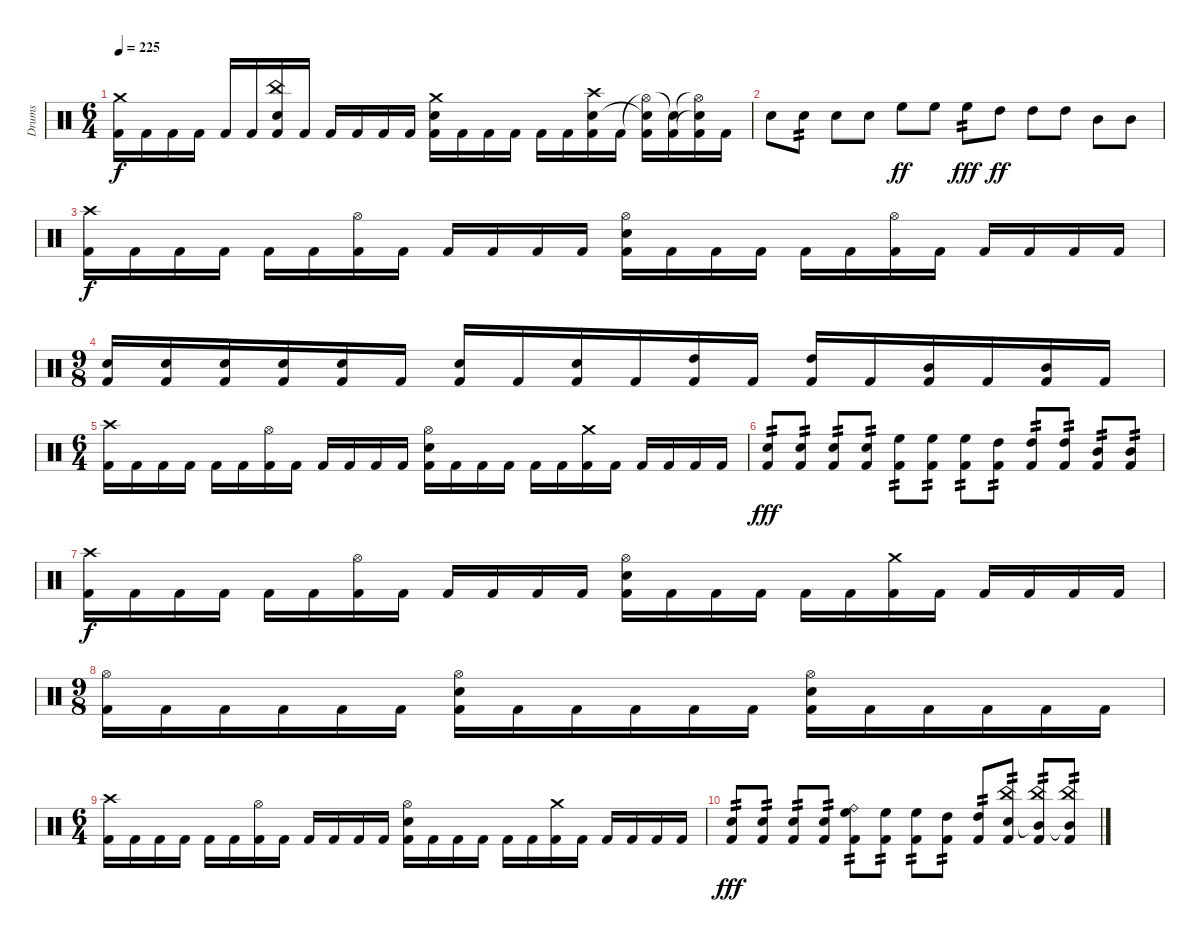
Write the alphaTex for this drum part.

\track ("Drums" "Drums") {instrument percussion}
\staff {score}
\articulation defaults
\ts (6 4)
\tempo 225
\clef neutral
\ks c
("Crash medium (hit)" "Kick (hit) 2").16{dy f} "Kick (hit) 2".16 "Kick (hit) 2".16 "Kick (hit) 2".16 "Kick (hit) 2".16 "Kick (hit) 2".16 ("China (hit)" "Snare (hit) 2" "Kick (hit) 2").16 "Kick (hit) 2".16 "Kick (hit) 2".16 "Kick (hit) 2".16 "Kick (hit) 2".16 "Kick (hit) 2".16 ("Crash medium (hit)" "Snare (hit) 2" "Kick (hit) 2").16 "Kick (hit) 2".16 "Kick (hit) 2".16 "Kick (hit) 2".16 "Kick (hit) 2".16 "Kick (hit) 2".16 ("Crash high (hit)" "Snare (hit) 2" "Kick (hit) 2").16 "Kick (hit) 2".16 ("Hi-Hat (open)"{t} "Snare (hit) 2"{t} "Kick (hit) 2").16 ("Snare (hit)"{t} "Kick (hit) 2").16 ("Hi-Hat (open)"{t} "Snare (hit) 2"{t} "Kick (hit) 2").16 "Kick (hit) 2".16 |
"Snare (hit) 2".8 "Snare (hit) 2".8{tp 2} "Snare (hit) 2".8 "Snare (hit) 2".8 "High Floor Tom (hit)".8{dy ff} "High Floor Tom (hit)".8 "High Floor Tom (hit)".8{tp 2 dy fff} "High Tom (hit)".8{dy ff} "High Tom (hit)".8 "High Tom (hit)".8 "Mid Tom (hit)".8 "Mid Tom (hit)".8 |
("Crash high (hit)" "Kick (hit) 2").16{dy f} "Kick (hit) 2".16 "Kick (hit) 2".16 "Kick (hit) 2".16 "Kick (hit) 2".16 "Kick (hit) 2".16 ("Hi-Hat (open)" "Kick (hit) 2").16 "Kick (hit) 2".16 "Kick (hit) 2".16 "Kick (hit) 2".16 "Kick (hit) 2".16 "Kick (hit) 2".16 ("Snare (hit) 2" "Hi-Hat (open)" "Kick (hit) 2").16 "Kick (hit) 2".16 "Kick (hit) 2".16 "Kick (hit) 2".16 "Kick (hit) 2".16 "Kick (hit) 2".16 ("Hi-Hat (open)" "Kick (hit) 2").16 "Kick (hit) 2".16 "Kick (hit) 2".16 "Kick (hit) 2".16 "Kick (hit) 2".16 "Kick (hit) 2".16 |
\ts (9 8)
("Snare (hit) 2" "Kick (hit) 2").16 ("Snare (hit) 2" "Kick (hit) 2").16 ("Snare (hit) 2" "Kick (hit) 2").16 ("Snare (hit) 2" "Kick (hit) 2").16 ("Snare (hit) 2" "Kick (hit) 2").16 "Kick (hit) 2".16 ("Snare (hit) 2" "Kick (hit) 2").16 "Kick (hit) 2".16 ("Snare (hit) 2" "Kick (hit) 2").16 "Kick (hit) 2".16 ("High Tom (hit)" "Kick (hit) 2").16 "Kick (hit) 2".16 ("High Tom (hit)" "Kick (hit) 2").16 "Kick (hit) 2".16 ("Mid Tom (hit)" "Kick (hit) 2").16 "Kick (hit) 2".16 ("Mid Tom (hit)" "Kick (hit) 2").16 "Kick (hit) 2".16 |
\ts (6 4)
("Crash high (hit)" "Kick (hit) 2").16 "Kick (hit) 2".16 "Kick (hit) 2".16 "Kick (hit) 2".16 "Kick (hit) 2".16 "Kick (hit) 2".16 ("Hi-Hat (open)" "Kick (hit) 2").16 "Kick (hit) 2".16 "Kick (hit) 2".16 "Kick (hit) 2".16 "Kick (hit) 2".16 "Kick (hit) 2".16 ("Snare (hit) 2" "Hi-Hat (open)" "Kick (hit) 2").16 "Kick (hit) 2".16 "Kick (hit) 2".16 "Kick (hit) 2".16 "Kick (hit) 2".16 "Kick (hit) 2".16 ("Crash medium (hit)" "Kick (hit) 2").16 "Kick (hit) 2".16 "Kick (hit) 2".16 "Kick (hit) 2".16 "Kick (hit) 2".16 "Kick (hit) 2".16 |
("Snare (hit) 2" "Kick (hit) 2").8{tp 2 dy fff} ("Snare (hit) 2" "Kick (hit) 2").8{tp 2} ("Snare (hit) 2" "Kick (hit) 2").8{tp 2} ("Snare (hit) 2" "Kick (hit) 2").8{tp 2} ("High Floor Tom (hit)" "Kick (hit) 2").8{tp 2} ("High Floor Tom (hit)" "Kick (hit) 2").8{tp 2} ("High Floor Tom (hit)" "Kick (hit) 2").8{tp 2} ("High Tom (hit)" "Kick (hit) 2").8{tp 2} ("High Tom (hit)" "Kick (hit) 2").8{tp 2} ("High Tom (hit)" "Kick (hit) 2").8{tp 2} ("Mid Tom (hit)" "Kick (hit) 2").8{tp 2} ("Mid Tom (hit)" "Kick (hit) 2").8{tp 2} |
("Crash high (hit)" "Kick (hit) 2").16{dy f} "Kick (hit) 2".16 "Kick (hit) 2".16 "Kick (hit) 2".16 "Kick (hit) 2".16 "Kick (hit) 2".16 ("Hi-Hat (open)" "Kick (hit) 2").16 "Kick (hit) 2".16 "Kick (hit) 2".16 "Kick (hit) 2".16 "Kick (hit) 2".16 "Kick (hit) 2".16 ("Snare (hit) 2" "Hi-Hat (open)" "Kick (hit) 2").16 "Kick (hit) 2".16 "Kick (hit) 2".16 "Kick (hit) 2".16 "Kick (hit) 2".16 "Kick (hit) 2".16 ("Crash medium (hit)" "Kick (hit) 2").16 "Kick (hit) 2".16 "Kick (hit) 2".16 "Kick (hit) 2".16 "Kick (hit) 2".16 "Kick (hit) 2".16 |
\ts (9 8)
("Hi-Hat (open)" "Kick (hit) 2").16 "Kick (hit) 2".16 "Kick (hit) 2".16 "Kick (hit) 2".16 "Kick (hit) 2".16 "Kick (hit) 2".16 ("Snare (hit) 2" "Hi-Hat (open)" "Kick (hit) 2").16 "Kick (hit) 2".16 "Kick (hit) 2".16 "Kick (hit) 2".16 "Kick (hit) 2".16 "Kick (hit) 2".16 ("Snare (hit) 2" "Hi-Hat (open)" "Kick (hit) 2").16 "Kick (hit) 2".16 "Kick (hit) 2".16 "Kick (hit) 2".16 "Kick (hit) 2".16 "Kick (hit) 2".16 |
\ts (6 4)
("Crash high (hit)" "Kick (hit) 2").16 "Kick (hit) 2".16 "Kick (hit) 2".16 "Kick (hit) 2".16 "Kick (hit) 2".16 "Kick (hit) 2".16 ("Hi-Hat (open)" "Kick (hit) 2").16 "Kick (hit) 2".16 "Kick (hit) 2".16 "Kick (hit) 2".16 "Kick (hit) 2".16 "Kick (hit) 2".16 ("Snare (hit) 2" "Hi-Hat (open)" "Kick (hit) 2").16 "Kick (hit) 2".16 "Kick (hit) 2".16 "Kick (hit) 2".16 "Kick (hit) 2".16 "Kick (hit) 2".16 ("Crash medium (hit)" "Kick (hit) 2").16 "Kick (hit) 2".16 "Kick (hit) 2".16 "Kick (hit) 2".16 "Kick (hit) 2".16 "Kick (hit) 2".16 |
("Snare (hit) 2" "Kick (hit) 2").8{tp 2 dy fff} ("Snare (hit) 2" "Kick (hit) 2").8{tp 2} ("Snare (hit) 2" "Kick (hit) 2").8{tp 2} ("Snare (hit) 2" "Kick (hit) 2").8{tp 2} ("Ride (bell)" "High Floor Tom (hit)" "Kick (hit) 2").8{tp 2} ("High Floor Tom (hit)" "Kick (hit) 2").8{tp 2} ("High Floor Tom (hit)" "Kick (hit) 2").8{tp 2} ("High Tom (hit)" "Kick (hit) 2").8{tp 2} ("High Tom (hit)" "Kick (hit) 2").8{tp 2} ("China (hit)" "Snare (hit) 2" "Kick (hit) 2").8{tp 2} ("China (hit)" "Mid Tom (hit)"{t} "Kick (hit) 2").8{tp 2} ("China (hit)" "Mid Tom (hit)"{t} "Kick (hit) 2").8{tp 2}
